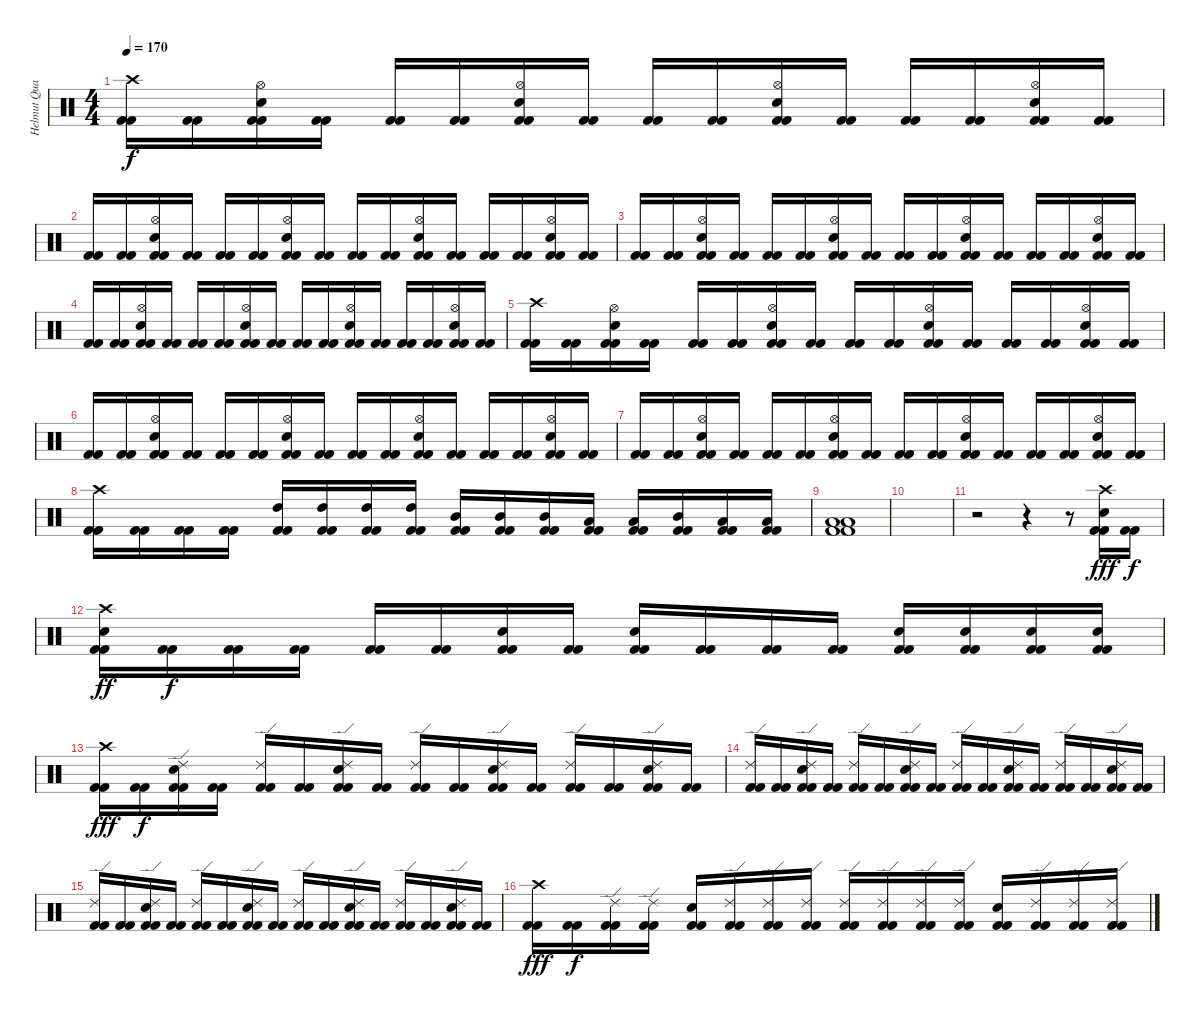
\track ("Helmut Quacken" "Helmut Qua") {instrument percussion}
\staff {score}
\articulation defaults
\ts (4 4)
\tempo 170
\clef neutral
\ks c
("Crash high (hit)" "Kick (hit) 2" "Kick (hit) 2").16{dy f} ("Kick (hit) 2" "Kick (hit) 2").16 ("Hi-Hat (open)" "Electric Snare (hit)" "Kick (hit) 2" "Kick (hit) 2").16 ("Kick (hit) 2" "Kick (hit) 2").16 ("Kick (hit) 2" "Kick (hit) 2").16 ("Kick (hit) 2" "Kick (hit) 2").16 ("Hi-Hat (open)" "Electric Snare (hit)" "Kick (hit) 2" "Kick (hit) 2").16 ("Kick (hit) 2" "Kick (hit) 2").16 ("Kick (hit) 2" "Kick (hit) 2").16 ("Kick (hit) 2" "Kick (hit) 2").16 ("Hi-Hat (open)" "Electric Snare (hit)" "Kick (hit) 2" "Kick (hit) 2").16 ("Kick (hit) 2" "Kick (hit) 2").16 ("Kick (hit) 2" "Kick (hit) 2").16 ("Kick (hit) 2" "Kick (hit) 2").16 ("Hi-Hat (open)" "Electric Snare (hit)" "Kick (hit) 2" "Kick (hit) 2").16 ("Kick (hit) 2" "Kick (hit) 2").16 |
("Kick (hit) 2" "Kick (hit) 2").16 ("Kick (hit) 2" "Kick (hit) 2").16 ("Hi-Hat (open)" "Electric Snare (hit)" "Kick (hit) 2" "Kick (hit) 2").16 ("Kick (hit) 2" "Kick (hit) 2").16 ("Kick (hit) 2" "Kick (hit) 2").16 ("Kick (hit) 2" "Kick (hit) 2").16 ("Hi-Hat (open)" "Electric Snare (hit)" "Kick (hit) 2" "Kick (hit) 2").16 ("Kick (hit) 2" "Kick (hit) 2").16 ("Kick (hit) 2" "Kick (hit) 2").16 ("Kick (hit) 2" "Kick (hit) 2").16 ("Hi-Hat (open)" "Electric Snare (hit)" "Kick (hit) 2" "Kick (hit) 2").16 ("Kick (hit) 2" "Kick (hit) 2").16 ("Kick (hit) 2" "Kick (hit) 2").16 ("Kick (hit) 2" "Kick (hit) 2").16 ("Hi-Hat (open)" "Electric Snare (hit)" "Kick (hit) 2" "Kick (hit) 2").16 ("Kick (hit) 2" "Kick (hit) 2").16 |
("Kick (hit) 2" "Kick (hit) 2").16 ("Kick (hit) 2" "Kick (hit) 2").16 ("Hi-Hat (open)" "Electric Snare (hit)" "Kick (hit) 2" "Kick (hit) 2").16 ("Kick (hit) 2" "Kick (hit) 2").16 ("Kick (hit) 2" "Kick (hit) 2").16 ("Kick (hit) 2" "Kick (hit) 2").16 ("Hi-Hat (open)" "Electric Snare (hit)" "Kick (hit) 2" "Kick (hit) 2").16 ("Kick (hit) 2" "Kick (hit) 2").16 ("Kick (hit) 2" "Kick (hit) 2").16 ("Kick (hit) 2" "Kick (hit) 2").16 ("Hi-Hat (open)" "Electric Snare (hit)" "Kick (hit) 2" "Kick (hit) 2").16 ("Kick (hit) 2" "Kick (hit) 2").16 ("Kick (hit) 2" "Kick (hit) 2").16 ("Kick (hit) 2" "Kick (hit) 2").16 ("Hi-Hat (open)" "Electric Snare (hit)" "Kick (hit) 2" "Kick (hit) 2").16 ("Kick (hit) 2" "Kick (hit) 2").16 |
("Kick (hit) 2" "Kick (hit) 2").16 ("Kick (hit) 2" "Kick (hit) 2").16 ("Hi-Hat (open)" "Electric Snare (hit)" "Kick (hit) 2" "Kick (hit) 2").16 ("Kick (hit) 2" "Kick (hit) 2").16 ("Kick (hit) 2" "Kick (hit) 2").16 ("Kick (hit) 2" "Kick (hit) 2").16 ("Hi-Hat (open)" "Electric Snare (hit)" "Kick (hit) 2" "Kick (hit) 2").16 ("Kick (hit) 2" "Kick (hit) 2").16 ("Kick (hit) 2" "Kick (hit) 2").16 ("Kick (hit) 2" "Kick (hit) 2").16 ("Hi-Hat (open)" "Electric Snare (hit)" "Kick (hit) 2" "Kick (hit) 2").16 ("Kick (hit) 2" "Kick (hit) 2").16 ("Kick (hit) 2" "Kick (hit) 2").16 ("Kick (hit) 2" "Kick (hit) 2").16 ("Hi-Hat (open)" "Electric Snare (hit)" "Kick (hit) 2" "Kick (hit) 2").16 ("Kick (hit) 2" "Kick (hit) 2").16 |
("Crash high (hit)" "Kick (hit) 2" "Kick (hit) 2").16 ("Kick (hit) 2" "Kick (hit) 2").16 ("Hi-Hat (open)" "Electric Snare (hit)" "Kick (hit) 2" "Kick (hit) 2").16 ("Kick (hit) 2" "Kick (hit) 2").16 ("Kick (hit) 2" "Kick (hit) 2").16 ("Kick (hit) 2" "Kick (hit) 2").16 ("Hi-Hat (open)" "Electric Snare (hit)" "Kick (hit) 2" "Kick (hit) 2").16 ("Kick (hit) 2" "Kick (hit) 2").16 ("Kick (hit) 2" "Kick (hit) 2").16 ("Kick (hit) 2" "Kick (hit) 2").16 ("Hi-Hat (open)" "Electric Snare (hit)" "Kick (hit) 2" "Kick (hit) 2").16 ("Kick (hit) 2" "Kick (hit) 2").16 ("Kick (hit) 2" "Kick (hit) 2").16 ("Kick (hit) 2" "Kick (hit) 2").16 ("Hi-Hat (open)" "Electric Snare (hit)" "Kick (hit) 2" "Kick (hit) 2").16 ("Kick (hit) 2" "Kick (hit) 2").16 |
("Kick (hit) 2" "Kick (hit) 2").16 ("Kick (hit) 2" "Kick (hit) 2").16 ("Hi-Hat (open)" "Electric Snare (hit)" "Kick (hit) 2" "Kick (hit) 2").16 ("Kick (hit) 2" "Kick (hit) 2").16 ("Kick (hit) 2" "Kick (hit) 2").16 ("Kick (hit) 2" "Kick (hit) 2").16 ("Hi-Hat (open)" "Electric Snare (hit)" "Kick (hit) 2" "Kick (hit) 2").16 ("Kick (hit) 2" "Kick (hit) 2").16 ("Kick (hit) 2" "Kick (hit) 2").16 ("Kick (hit) 2" "Kick (hit) 2").16 ("Hi-Hat (open)" "Electric Snare (hit)" "Kick (hit) 2" "Kick (hit) 2").16 ("Kick (hit) 2" "Kick (hit) 2").16 ("Kick (hit) 2" "Kick (hit) 2").16 ("Kick (hit) 2" "Kick (hit) 2").16 ("Hi-Hat (open)" "Electric Snare (hit)" "Kick (hit) 2" "Kick (hit) 2").16 ("Kick (hit) 2" "Kick (hit) 2").16 |
("Kick (hit) 2" "Kick (hit) 2").16 ("Kick (hit) 2" "Kick (hit) 2").16 ("Hi-Hat (open)" "Electric Snare (hit)" "Kick (hit) 2" "Kick (hit) 2").16 ("Kick (hit) 2" "Kick (hit) 2").16 ("Kick (hit) 2" "Kick (hit) 2").16 ("Kick (hit) 2" "Kick (hit) 2").16 ("Hi-Hat (open)" "Electric Snare (hit)" "Kick (hit) 2" "Kick (hit) 2").16 ("Kick (hit) 2" "Kick (hit) 2").16 ("Kick (hit) 2" "Kick (hit) 2").16 ("Kick (hit) 2" "Kick (hit) 2").16 ("Hi-Hat (open)" "Electric Snare (hit)" "Kick (hit) 2" "Kick (hit) 2").16 ("Kick (hit) 2" "Kick (hit) 2").16 ("Kick (hit) 2" "Kick (hit) 2").16 ("Kick (hit) 2" "Kick (hit) 2").16 ("Hi-Hat (open)" "Electric Snare (hit)" "Kick (hit) 2" "Kick (hit) 2").16 ("Kick (hit) 2" "Kick (hit) 2").16 |
("Crash high (hit)" "Kick (hit) 2" "Kick (hit) 2").16 ("Kick (hit) 2" "Kick (hit) 2").16 ("Kick (hit) 2" "Kick (hit) 2").16 ("Kick (hit) 2" "Kick (hit) 2").16 ("High Tom (hit)" "Kick (hit) 2" "Kick (hit) 2").16 ("High Tom (hit)" "Kick (hit) 2" "Kick (hit) 2").16 ("High Tom (hit)" "Kick (hit) 2" "Kick (hit) 2").16 ("High Tom (hit)" "Kick (hit) 2" "Kick (hit) 2").16 ("Mid Tom (hit)" "Kick (hit) 2" "Kick (hit) 2").16 ("Mid Tom (hit)" "Kick (hit) 2" "Kick (hit) 2").16 ("Mid Tom (hit)" "Kick (hit) 2" "Kick (hit) 2").16 ("Low Tom (hit)" "Kick (hit) 2" "Kick (hit) 2").16 ("Low Tom (hit)" "Kick (hit) 2" "Kick (hit) 2").16 ("Mid Tom (hit)" "Kick (hit) 2" "Kick (hit) 2").16 ("Low Tom (hit)" "Kick (hit) 2" "Kick (hit) 2").16 ("Low Tom (hit)" "Kick (hit) 2" "Kick (hit) 2").16 |
("Low Tom (hit)" "Low Tom (hit)" "Kick (hit) 2" "Kick (hit) 2").1 |
|
r.2 r.4 r.8 ("Crash high (hit)" "Electric Snare (hit)" "Kick (hit) 2" "Kick (hit) 2").16{dy fff} ("Kick (hit) 2" "Kick (hit) 2").16{dy f} |
("Crash high (hit)" "Electric Snare (hit)" "Kick (hit) 2" "Kick (hit) 2").16{dy ff} ("Kick (hit) 2" "Kick (hit) 2").16{dy f} ("Kick (hit) 2" "Kick (hit) 2").16 ("Kick (hit) 2" "Kick (hit) 2").16 ("Kick (hit) 2" "Kick (hit) 2").16 ("Kick (hit) 2" "Kick (hit) 2").16 ("Electric Snare (hit)" "Kick (hit) 2" "Kick (hit) 2").16 ("Kick (hit) 2" "Kick (hit) 2").16 ("Electric Snare (hit)" "Kick (hit) 2" "Kick (hit) 2").16 ("Kick (hit) 2" "Kick (hit) 2").16 ("Kick (hit) 2" "Kick (hit) 2").16 ("Kick (hit) 2" "Kick (hit) 2").16 ("Electric Snare (hit)" "Kick (hit) 2" "Kick (hit) 2").16 ("Electric Snare (hit)" "Kick (hit) 2" "Kick (hit) 2").16 ("Electric Snare (hit)" "Kick (hit) 2" "Kick (hit) 2").16 ("Electric Snare (hit)" "Kick (hit) 2" "Kick (hit) 2").16 |
("Crash high (hit)" "Kick (hit) 2" "Kick (hit) 2").16{dy fff} ("Kick (hit) 2" "Kick (hit) 2").16{dy f} ("Ride (edge) 2" "Electric Snare (hit)" "Kick (hit) 2" "Kick (hit) 2").16 ("Kick (hit) 2" "Kick (hit) 2").16 ("Ride (edge) 2" "Kick (hit) 2" "Kick (hit) 2").16 ("Kick (hit) 2" "Kick (hit) 2").16 ("Ride (edge) 2" "Electric Snare (hit)" "Kick (hit) 2" "Kick (hit) 2").16 ("Kick (hit) 2" "Kick (hit) 2").16 ("Ride (edge) 2" "Kick (hit) 2" "Kick (hit) 2").16 ("Kick (hit) 2" "Kick (hit) 2").16 ("Ride (edge) 2" "Electric Snare (hit)" "Kick (hit) 2" "Kick (hit) 2").16 ("Kick (hit) 2" "Kick (hit) 2").16 ("Ride (edge) 2" "Kick (hit) 2" "Kick (hit) 2").16 ("Kick (hit) 2" "Kick (hit) 2").16 ("Ride (edge) 2" "Electric Snare (hit)" "Kick (hit) 2" "Kick (hit) 2").16 ("Kick (hit) 2" "Kick (hit) 2").16 |
("Ride (edge) 2" "Kick (hit) 2" "Kick (hit) 2").16 ("Kick (hit) 2" "Kick (hit) 2").16 ("Ride (edge) 2" "Electric Snare (hit)" "Kick (hit) 2" "Kick (hit) 2").16 ("Kick (hit) 2" "Kick (hit) 2").16 ("Ride (edge) 2" "Kick (hit) 2" "Kick (hit) 2").16 ("Kick (hit) 2" "Kick (hit) 2").16 ("Ride (edge) 2" "Electric Snare (hit)" "Kick (hit) 2" "Kick (hit) 2").16 ("Kick (hit) 2" "Kick (hit) 2").16 ("Ride (edge) 2" "Kick (hit) 2" "Kick (hit) 2").16 ("Kick (hit) 2" "Kick (hit) 2").16 ("Ride (edge) 2" "Electric Snare (hit)" "Kick (hit) 2" "Kick (hit) 2").16 ("Kick (hit) 2" "Kick (hit) 2").16 ("Ride (edge) 2" "Kick (hit) 2" "Kick (hit) 2").16 ("Kick (hit) 2" "Kick (hit) 2").16 ("Ride (edge) 2" "Electric Snare (hit)" "Kick (hit) 2" "Kick (hit) 2").16 ("Kick (hit) 2" "Kick (hit) 2").16 |
("Ride (edge) 2" "Kick (hit) 2" "Kick (hit) 2").16 ("Kick (hit) 2" "Kick (hit) 2").16 ("Ride (edge) 2" "Electric Snare (hit)" "Kick (hit) 2" "Kick (hit) 2").16 ("Kick (hit) 2" "Kick (hit) 2").16 ("Ride (edge) 2" "Kick (hit) 2" "Kick (hit) 2").16 ("Kick (hit) 2" "Kick (hit) 2").16 ("Ride (edge) 2" "Electric Snare (hit)" "Kick (hit) 2" "Kick (hit) 2").16 ("Kick (hit) 2" "Kick (hit) 2").16 ("Ride (edge) 2" "Kick (hit) 2" "Kick (hit) 2").16 ("Kick (hit) 2" "Kick (hit) 2").16 ("Ride (edge) 2" "Electric Snare (hit)" "Kick (hit) 2" "Kick (hit) 2").16 ("Kick (hit) 2" "Kick (hit) 2").16 ("Ride (edge) 2" "Kick (hit) 2" "Kick (hit) 2").16 ("Kick (hit) 2" "Kick (hit) 2").16 ("Ride (edge) 2" "Electric Snare (hit)" "Kick (hit) 2" "Kick (hit) 2").16 ("Kick (hit) 2" "Kick (hit) 2").16 |
("Crash high (hit)" "Kick (hit) 2" "Kick (hit) 2").16{dy fff} ("Kick (hit) 2" "Kick (hit) 2").16{dy f} ("Ride (edge) 2" "Kick (hit) 2" "Kick (hit) 2").16 ("Ride (edge) 2" "Kick (hit) 2" "Kick (hit) 2").16 ("Electric Snare (hit)" "Kick (hit) 2" "Kick (hit) 2").16 ("Ride (edge) 2" "Kick (hit) 2" "Kick (hit) 2").16 ("Ride (edge) 2" "Kick (hit) 2" "Kick (hit) 2").16 ("Ride (edge) 2" "Kick (hit) 2" "Kick (hit) 2").16 ("Ride (edge) 2" "Kick (hit) 2" "Kick (hit) 2").16 ("Ride (edge) 2" "Kick (hit) 2" "Kick (hit) 2").16 ("Ride (edge) 2" "Kick (hit) 2" "Kick (hit) 2").16 ("Ride (edge) 2" "Kick (hit) 2" "Kick (hit) 2").16 ("Electric Snare (hit)" "Kick (hit) 2" "Kick (hit) 2").16 ("Ride (edge) 2" "Kick (hit) 2" "Kick (hit) 2").16 ("Ride (edge) 2" "Kick (hit) 2" "Kick (hit) 2").16 ("Ride (edge) 2" "Kick (hit) 2" "Kick (hit) 2").16
